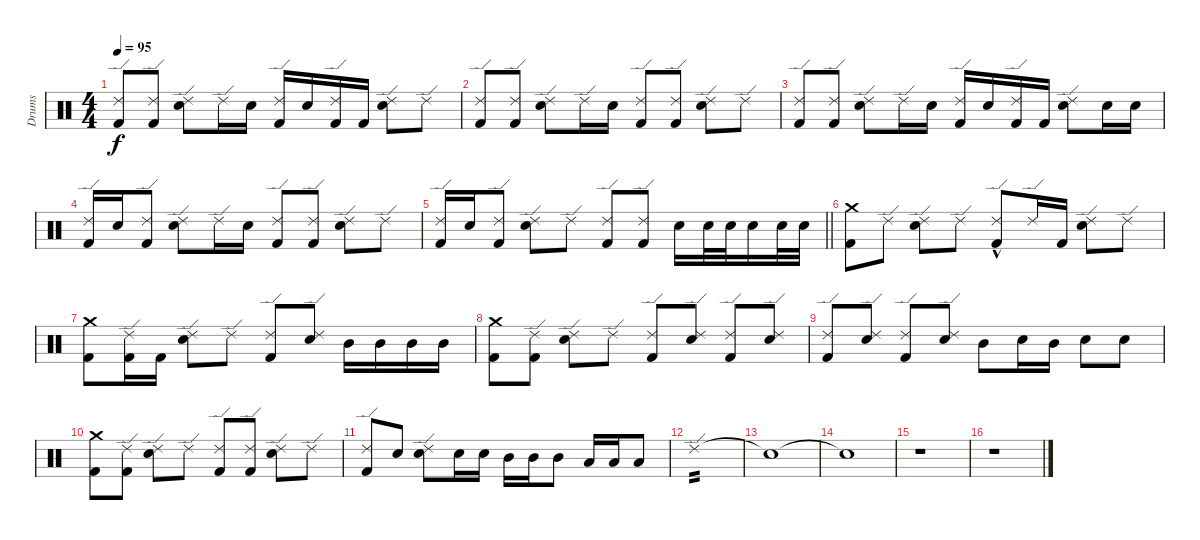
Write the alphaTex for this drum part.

\track ("Drums" "Drums") {instrument percussion}
\staff {score}
\articulation defaults
\ts (4 4)
\tempo 95
\clef neutral
\ks c
("Ride (edge) 2" "Kick (hit) 2").8{dy f} ("Ride (edge) 2" "Kick (hit) 2").8 ("Ride (edge) 2" "Snare (hit) 2").8 "Ride (edge) 2".16 "Snare (hit) 2".16 ("Ride (edge) 2" "Kick (hit) 2").16 "Snare (hit) 2".16 ("Ride (edge) 2" "Kick (hit) 2").16 "Kick (hit) 2".16 ("Ride (edge) 2" "Snare (hit) 2").8 "Ride (edge) 2".8 |
("Ride (edge) 2" "Kick (hit) 2").8 ("Ride (edge) 2" "Kick (hit) 2").8 ("Ride (edge) 2" "Snare (hit) 2").8 "Ride (edge) 2".16 "Snare (hit) 2".16 ("Ride (edge) 2" "Kick (hit) 2").8 ("Ride (edge) 2" "Kick (hit) 2").8 ("Ride (edge) 2" "Snare (hit) 2").8 "Ride (edge) 2".8 |
("Ride (edge) 2" "Kick (hit) 2").8 ("Ride (edge) 2" "Kick (hit) 2").8 ("Ride (edge) 2" "Snare (hit) 2").8 "Ride (edge) 2".16 "Snare (hit) 2".16 ("Ride (edge) 2" "Kick (hit) 2").16 "Snare (hit) 2".16 ("Ride (edge) 2" "Kick (hit) 2").16 "Kick (hit) 2".16 ("Ride (edge) 2" "Snare (hit) 2").8 "Snare (hit) 2".16 "Snare (hit) 2".16 |
("Ride (edge) 2" "Kick (hit) 2").16 "Snare (hit) 2".16 ("Ride (edge) 2" "Kick (hit) 2").8 ("Ride (edge) 2" "Snare (hit) 2").8 "Ride (edge) 2".16 "Snare (hit) 2".16 ("Ride (edge) 2" "Kick (hit) 2").8 ("Ride (edge) 2" "Kick (hit) 2").8 ("Ride (edge) 2" "Snare (hit) 2").8 "Ride (edge) 2".8 |
\barLineRight lightlight
("Ride (edge) 2" "Kick (hit) 2").16 "Snare (hit) 2".16 ("Ride (edge) 2" "Kick (hit) 2").8 ("Ride (edge) 2" "Snare (hit) 2").8 "Ride (edge) 2".8 ("Ride (edge) 2" "Kick (hit) 2").8 ("Ride (edge) 2" "Kick (hit) 2").8 "Snare (hit) 2".16 "Snare (hit) 2".32 "Snare (hit) 2".32 "Snare (hit) 2".16 "Snare (hit) 2".32 "Snare (hit) 2".32 |
("Crash medium (hit)" "Kick (hit) 2").8 "Ride (edge) 2".8 ("Ride (edge) 2" "Snare (hit) 2").8 "Ride (edge) 2".8 ("Ride (edge) 2" "Kick (hit) 2"{hac}).8 "Ride (edge) 2".16 "Kick (hit) 2".16 ("Ride (edge) 2" "Snare (hit) 2").8 "Ride (edge) 2".8 |
("Crash medium (hit)" "Kick (hit) 2").8 ("Ride (edge) 2" "Kick (hit) 2").16 "Kick (hit) 2".16 ("Ride (edge) 2" "Snare (hit) 2").8 "Ride (edge) 2".8 ("Ride (edge) 2" "Kick (hit) 2").8 ("Ride (edge) 2" "Snare (hit) 2").8 "Mid Tom (hit)".16 "Mid Tom (hit)".16 "Mid Tom (hit)".16 "Mid Tom (hit)".16 |
("Crash medium (hit)" "Kick (hit) 2").8 ("Ride (edge) 2" "Kick (hit) 2").8 ("Ride (edge) 2" "Snare (hit) 2").8 "Ride (edge) 2".8 ("Ride (edge) 2" "Kick (hit) 2").8 ("Ride (edge) 2" "Snare (hit) 2").8 ("Ride (edge) 2" "Kick (hit) 2").8 ("Ride (edge) 2" "Snare (hit) 2").8 |
("Ride (edge) 2" "Kick (hit) 2").8 ("Ride (edge) 2" "Snare (hit) 2").8 ("Ride (edge) 2" "Kick (hit) 2").8 ("Ride (edge) 2" "Snare (hit) 2").8 "Mid Tom (hit)".8 "Snare (hit) 2".16 "Mid Tom (hit)".16 "Snare (hit) 2".8 "Snare (hit) 2".8 |
("Crash medium (hit)" "Kick (hit) 2").8 ("Ride (edge) 2" "Kick (hit) 2").8 ("Ride (edge) 2" "Snare (hit) 2").8 "Ride (edge) 2".8 ("Ride (edge) 2" "Kick (hit) 2").8 ("Ride (edge) 2" "Kick (hit) 2").8 ("Ride (edge) 2" "Snare (hit) 2").8 "Ride (edge) 2".8 |
("Ride (edge) 2" "Kick (hit) 2").8 "Snare (hit) 2".8 ("Ride (edge) 2" "Snare (hit) 2").8 "Snare (hit) 2".16 "Snare (hit) 2".16 "Mid Tom (hit)".16 "Mid Tom (hit)".16 "Mid Tom (hit)".8 "Low Tom (hit)".16 "Low Tom (hit)".16 "Low Tom (hit)".8 |
"Ride (edge) 2".1{tp 2} |
"Snare (hit)"{t}.1 |
"Snare (hit)"{t}.1 |
r.1 |
r.1
